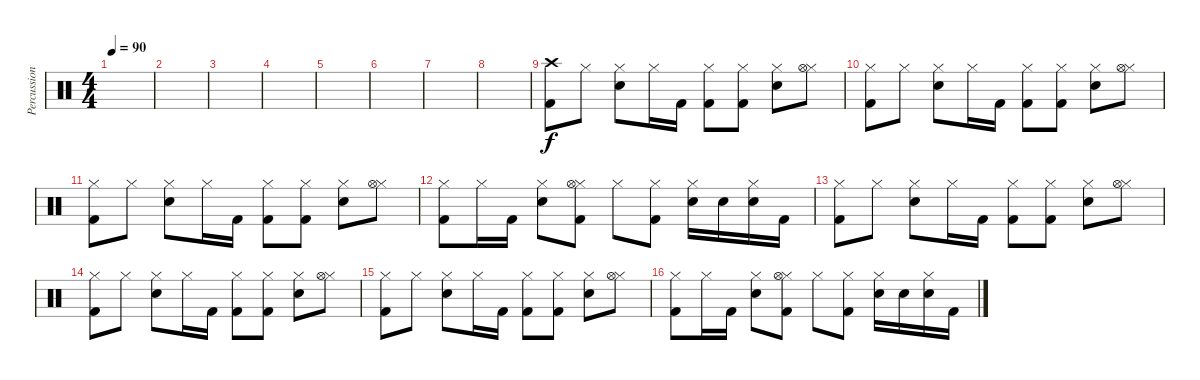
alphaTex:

\track ("Percussions" "Percussion") {instrument percussion}
\staff {score}
\articulation defaults
\ts (4 4)
\tempo 90
\clef neutral
\ks c
|
|
|
|
|
|
|
|
("Crash high (hit)" "Kick (hit) 2").8 "Hi-Hat (closed)".8 ("Hi-Hat (closed)" "Electric Snare (hit)").8 "Hi-Hat (closed)".16 "Kick (hit) 2".16 ("Hi-Hat (closed)" "Kick (hit) 2").8 ("Hi-Hat (closed)" "Kick (hit) 2").8 ("Hi-Hat (closed)" "Electric Snare (hit)").8 ("Hi-Hat (closed)" "Hi-Hat (open)").8 |
("Hi-Hat (closed)" "Kick (hit) 2").8 "Hi-Hat (closed)".8 ("Hi-Hat (closed)" "Electric Snare (hit)").8 "Hi-Hat (closed)".16 "Kick (hit) 2".16 ("Hi-Hat (closed)" "Kick (hit) 2").8 ("Hi-Hat (closed)" "Kick (hit) 2").8 ("Hi-Hat (closed)" "Electric Snare (hit)").8 ("Hi-Hat (closed)" "Hi-Hat (open)").8 |
("Hi-Hat (closed)" "Kick (hit) 2").8 "Hi-Hat (closed)".8 ("Hi-Hat (closed)" "Electric Snare (hit)").8 "Hi-Hat (closed)".16 "Kick (hit) 2".16 ("Hi-Hat (closed)" "Kick (hit) 2").8 ("Hi-Hat (closed)" "Kick (hit) 2").8 ("Hi-Hat (closed)" "Electric Snare (hit)").8 ("Hi-Hat (closed)" "Hi-Hat (open)").8 |
("Hi-Hat (closed)" "Kick (hit) 2").8 "Hi-Hat (closed)".16 "Kick (hit) 2".16 ("Hi-Hat (closed)" "Electric Snare (hit)").8 ("Hi-Hat (closed)" "Hi-Hat (open)" "Kick (hit) 2").8 "Hi-Hat (closed)".8 ("Hi-Hat (closed)" "Kick (hit) 2").8 ("Hi-Hat (closed)" "Electric Snare (hit)").16 "Snare (hit)".16 ("Hi-Hat (closed)" "Snare (hit)").16 "Kick (hit) 2".16 |
("Hi-Hat (closed)" "Kick (hit) 2").8 "Hi-Hat (closed)".8 ("Hi-Hat (closed)" "Electric Snare (hit)").8 "Hi-Hat (closed)".16 "Kick (hit) 2".16 ("Hi-Hat (closed)" "Kick (hit) 2").8 ("Hi-Hat (closed)" "Kick (hit) 2").8 ("Hi-Hat (closed)" "Electric Snare (hit)").8 ("Hi-Hat (closed)" "Hi-Hat (open)").8 |
("Hi-Hat (closed)" "Kick (hit) 2").8 "Hi-Hat (closed)".8 ("Hi-Hat (closed)" "Electric Snare (hit)").8 "Hi-Hat (closed)".16 "Kick (hit) 2".16 ("Hi-Hat (closed)" "Kick (hit) 2").8 ("Hi-Hat (closed)" "Kick (hit) 2").8 ("Hi-Hat (closed)" "Electric Snare (hit)").8 ("Hi-Hat (closed)" "Hi-Hat (open)").8 |
("Hi-Hat (closed)" "Kick (hit) 2").8 "Hi-Hat (closed)".8 ("Hi-Hat (closed)" "Electric Snare (hit)").8 "Hi-Hat (closed)".16 "Kick (hit) 2".16 ("Hi-Hat (closed)" "Kick (hit) 2").8 ("Hi-Hat (closed)" "Kick (hit) 2").8 ("Hi-Hat (closed)" "Electric Snare (hit)").8 ("Hi-Hat (closed)" "Hi-Hat (open)").8 |
("Hi-Hat (closed)" "Kick (hit) 2").8 "Hi-Hat (closed)".16 "Kick (hit) 2".16 ("Hi-Hat (closed)" "Electric Snare (hit)").8 ("Hi-Hat (closed)" "Hi-Hat (open)" "Kick (hit) 2").8 "Hi-Hat (closed)".8 ("Hi-Hat (closed)" "Kick (hit) 2").8 ("Hi-Hat (closed)" "Electric Snare (hit)").16 "Snare (hit)".16 ("Hi-Hat (closed)" "Snare (hit)").16 "Kick (hit) 2".16
